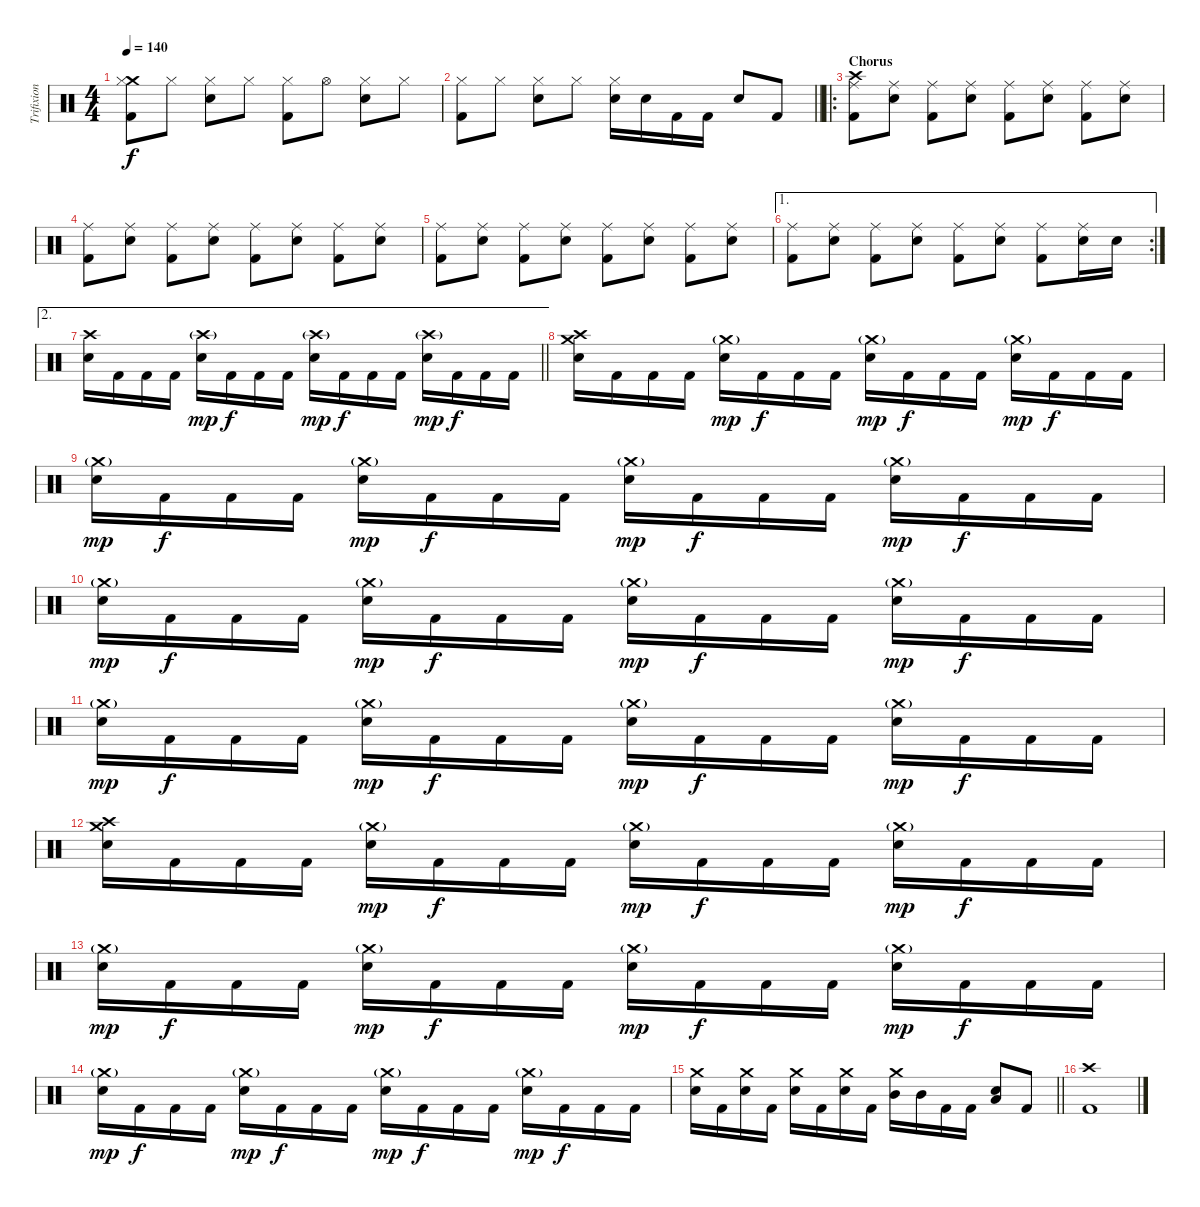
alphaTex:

\track ("Trifixion of the Horned King" "Trifixion ") {instrument percussion}
\staff {score}
\articulation defaults
\ts (4 4)
\tempo 140
\clef neutral
\ks c
("Crash medium (hit)" "Hi-Hat (closed)" "Kick (hit) 2").8{dy f} "Hi-Hat (closed)".8 ("Hi-Hat (closed)" "Electric Snare (hit)").8 "Hi-Hat (closed)".8 ("Hi-Hat (closed)" "Kick (hit) 2").8 "Hi-Hat (open)".8 ("Hi-Hat (closed)" "Electric Snare (hit)").8 "Hi-Hat (closed)".8 |
\barLineRight lightlight
("Hi-Hat (closed)" "Kick (hit) 2").8 "Hi-Hat (closed)".8 ("Hi-Hat (closed)" "Electric Snare (hit)").8 "Hi-Hat (closed)".8 ("Hi-Hat (closed)" "Electric Snare (hit)").16 "Electric Snare (hit)".16 "Kick (hit) 2".16 "Kick (hit) 2".16 "Electric Snare (hit)".8 "Kick (hit) 2".8 |
\ro
\section ("" "Chorus")
("Crash high (hit)" "Ride (middle)" "Kick (hit) 2").8 ("Ride (middle)" "Electric Snare (hit)").8 ("Ride (middle)" "Kick (hit) 2").8 ("Ride (middle)" "Electric Snare (hit)").8 ("Ride (middle)" "Kick (hit) 2").8 ("Ride (middle)" "Electric Snare (hit)").8 ("Ride (middle)" "Kick (hit) 2").8 ("Ride (middle)" "Electric Snare (hit)").8 |
("Ride (middle)" "Kick (hit) 2").8 ("Ride (middle)" "Electric Snare (hit)").8 ("Ride (middle)" "Kick (hit) 2").8 ("Ride (middle)" "Electric Snare (hit)").8 ("Ride (middle)" "Kick (hit) 2").8 ("Ride (middle)" "Electric Snare (hit)").8 ("Ride (middle)" "Kick (hit) 2").8 ("Ride (middle)" "Electric Snare (hit)").8 |
("Ride (middle)" "Kick (hit) 2").8 ("Ride (middle)" "Electric Snare (hit)").8 ("Ride (middle)" "Kick (hit) 2").8 ("Ride (middle)" "Electric Snare (hit)").8 ("Ride (middle)" "Kick (hit) 2").8 ("Ride (middle)" "Electric Snare (hit)").8 ("Ride (middle)" "Kick (hit) 2").8 ("Ride (middle)" "Electric Snare (hit)").8 |
\ae 1
\rc 2
("Ride (middle)" "Kick (hit) 2").8 ("Ride (middle)" "Electric Snare (hit)").8 ("Ride (middle)" "Kick (hit) 2").8 ("Ride (middle)" "Electric Snare (hit)").8 ("Ride (middle)" "Kick (hit) 2").8 ("Ride (middle)" "Electric Snare (hit)").8 ("Ride (middle)" "Kick (hit) 2").8 ("Ride (middle)" "Electric Snare (hit)").16 "Electric Snare (hit)".16 |
\ae 2
\barLineRight lightlight
("Crash high (hit)" "Electric Snare (hit)").16 "Kick (hit) 2".16 "Kick (hit) 2".16 "Kick (hit) 2".16 ("Crash high (hit)"{g} "Electric Snare (hit)").16{dy mp} "Kick (hit) 2".16{dy f} "Kick (hit) 2".16 "Kick (hit) 2".16 ("Crash high (hit)"{g} "Electric Snare (hit)").16{dy mp} "Kick (hit) 2".16{dy f} "Kick (hit) 2".16 "Kick (hit) 2".16 ("Crash high (hit)"{g} "Electric Snare (hit)").16{dy mp} "Kick (hit) 2".16{dy f} "Kick (hit) 2".16 "Kick (hit) 2".16 |
("Crash high (hit)" "Crash medium (hit)" "Electric Snare (hit)").16 "Kick (hit) 2".16 "Kick (hit) 2".16 "Kick (hit) 2".16 ("Crash medium (hit)"{g} "Electric Snare (hit)").16{dy mp} "Kick (hit) 2".16{dy f} "Kick (hit) 2".16 "Kick (hit) 2".16 ("Crash medium (hit)"{g} "Electric Snare (hit)").16{dy mp} "Kick (hit) 2".16{dy f} "Kick (hit) 2".16 "Kick (hit) 2".16 ("Crash medium (hit)"{g} "Electric Snare (hit)").16{dy mp} "Kick (hit) 2".16{dy f} "Kick (hit) 2".16 "Kick (hit) 2".16 |
("Crash medium (hit)"{g} "Electric Snare (hit)").16{dy mp} "Kick (hit) 2".16{dy f} "Kick (hit) 2".16 "Kick (hit) 2".16 ("Crash medium (hit)"{g} "Electric Snare (hit)").16{dy mp} "Kick (hit) 2".16{dy f} "Kick (hit) 2".16 "Kick (hit) 2".16 ("Crash medium (hit)"{g} "Electric Snare (hit)").16{dy mp} "Kick (hit) 2".16{dy f} "Kick (hit) 2".16 "Kick (hit) 2".16 ("Crash medium (hit)"{g} "Electric Snare (hit)").16{dy mp} "Kick (hit) 2".16{dy f} "Kick (hit) 2".16 "Kick (hit) 2".16 |
("Crash medium (hit)"{g} "Electric Snare (hit)").16{dy mp} "Kick (hit) 2".16{dy f} "Kick (hit) 2".16 "Kick (hit) 2".16 ("Crash medium (hit)"{g} "Electric Snare (hit)").16{dy mp} "Kick (hit) 2".16{dy f} "Kick (hit) 2".16 "Kick (hit) 2".16 ("Crash medium (hit)"{g} "Electric Snare (hit)").16{dy mp} "Kick (hit) 2".16{dy f} "Kick (hit) 2".16 "Kick (hit) 2".16 ("Crash medium (hit)"{g} "Electric Snare (hit)").16{dy mp} "Kick (hit) 2".16{dy f} "Kick (hit) 2".16 "Kick (hit) 2".16 |
("Crash medium (hit)"{g} "Electric Snare (hit)").16{dy mp} "Kick (hit) 2".16{dy f} "Kick (hit) 2".16 "Kick (hit) 2".16 ("Crash medium (hit)"{g} "Electric Snare (hit)").16{dy mp} "Kick (hit) 2".16{dy f} "Kick (hit) 2".16 "Kick (hit) 2".16 ("Crash medium (hit)"{g} "Electric Snare (hit)").16{dy mp} "Kick (hit) 2".16{dy f} "Kick (hit) 2".16 "Kick (hit) 2".16 ("Crash medium (hit)"{g} "Electric Snare (hit)").16{dy mp} "Kick (hit) 2".16{dy f} "Kick (hit) 2".16 "Kick (hit) 2".16 |
("Crash high (hit)" "Crash medium (hit)" "Electric Snare (hit)").16 "Kick (hit) 2".16 "Kick (hit) 2".16 "Kick (hit) 2".16 ("Crash medium (hit)"{g} "Electric Snare (hit)").16{dy mp} "Kick (hit) 2".16{dy f} "Kick (hit) 2".16 "Kick (hit) 2".16 ("Crash medium (hit)"{g} "Electric Snare (hit)").16{dy mp} "Kick (hit) 2".16{dy f} "Kick (hit) 2".16 "Kick (hit) 2".16 ("Crash medium (hit)"{g} "Electric Snare (hit)").16{dy mp} "Kick (hit) 2".16{dy f} "Kick (hit) 2".16 "Kick (hit) 2".16 |
("Crash medium (hit)"{g} "Electric Snare (hit)").16{dy mp} "Kick (hit) 2".16{dy f} "Kick (hit) 2".16 "Kick (hit) 2".16 ("Crash medium (hit)"{g} "Electric Snare (hit)").16{dy mp} "Kick (hit) 2".16{dy f} "Kick (hit) 2".16 "Kick (hit) 2".16 ("Crash medium (hit)"{g} "Electric Snare (hit)").16{dy mp} "Kick (hit) 2".16{dy f} "Kick (hit) 2".16 "Kick (hit) 2".16 ("Crash medium (hit)"{g} "Electric Snare (hit)").16{dy mp} "Kick (hit) 2".16{dy f} "Kick (hit) 2".16 "Kick (hit) 2".16 |
("Crash medium (hit)"{g} "Electric Snare (hit)").16{dy mp} "Kick (hit) 2".16{dy f} "Kick (hit) 2".16 "Kick (hit) 2".16 ("Crash medium (hit)"{g} "Electric Snare (hit)").16{dy mp} "Kick (hit) 2".16{dy f} "Kick (hit) 2".16 "Kick (hit) 2".16 ("Crash medium (hit)"{g} "Electric Snare (hit)").16{dy mp} "Kick (hit) 2".16{dy f} "Kick (hit) 2".16 "Kick (hit) 2".16 ("Crash medium (hit)"{g} "Electric Snare (hit)").16{dy mp} "Kick (hit) 2".16{dy f} "Kick (hit) 2".16 "Kick (hit) 2".16 |
\barLineRight lightlight
("Crash medium (hit)" "Electric Snare (hit)").16 "Kick (hit) 2".16 ("Crash medium (hit)" "Electric Snare (hit)").16 "Kick (hit) 2".16 ("Crash medium (hit)" "Electric Snare (hit)").16 "Kick (hit) 2".16 ("Crash medium (hit)" "Electric Snare (hit)").16 "Kick (hit) 2".16 ("Crash medium (hit)" "Mid Tom (hit)").16 "Mid Tom (hit)".16 "Kick (hit) 2".16 "Kick (hit) 2".16 ("Low Tom (hit)" "Electric Snare (hit)").8 "Kick (hit) 2".8 |
("Crash high (hit)" "Kick (hit) 2").1
